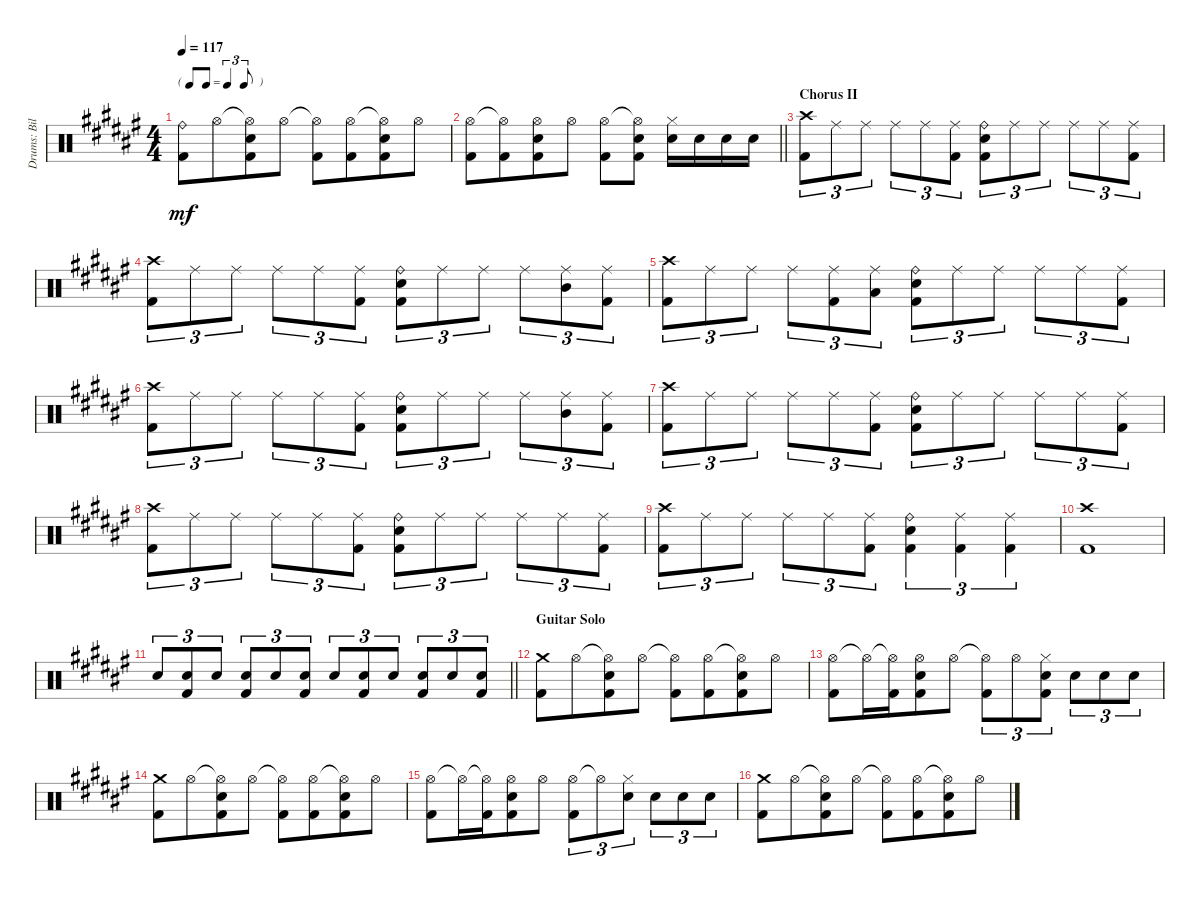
\track ("Drums: Bill" "Drums: Bil") {instrument percussion}
\staff {score}
\articulation defaults
\ts (4 4)
\tf triplet8th
\tempo 117
\clef neutral
\ks f#
("Ride (bell)" "Kick (hit) 2").8{dy mf} "Hi-Hat (open)".8{beam merge} ("Hi-Hat (open)"{t} "Electric Snare (hit)" "Kick (hit) 2").8 "Hi-Hat (open)".8 ("Hi-Hat (open)"{t} "Kick (hit) 2").8 ("Hi-Hat (open)" "Kick (hit) 2").8{beam merge} ("Hi-Hat (open)"{t} "Electric Snare (hit)" "Kick (hit) 2").8 "Hi-Hat (open)".8 |
\barLineRight lightlight
("Hi-Hat (open)" "Kick (hit) 2").8 ("Hi-Hat (open)"{t} "Kick (hit) 2").8{beam merge} ("Hi-Hat (open)" "Electric Snare (hit)" "Kick (hit) 2").8 "Hi-Hat (open)".8 ("Hi-Hat (open)" "Kick (hit) 2").8 ("Hi-Hat (open)"{t} "Electric Snare (hit)" "Kick (hit) 2").8 ("Hi-Hat (closed)" "Electric Snare (hit)").16 "Electric Snare (hit)".16 "Electric Snare (hit)".16 "Electric Snare (hit)".16 |
\section ("" "Chorus II")
("Crash high (hit)" "Kick (hit) 2").8{tu (3 2)} "Ride (middle)".8{tu (3 2)} "Ride (middle)".8{tu (3 2)} "Ride (middle)".8{tu (3 2)} "Ride (middle)".8{tu (3 2)} ("Ride (middle)" "Kick (hit) 2").8{tu (3 2)} ("Ride (bell)" "Electric Snare (hit)" "Kick (hit) 2").8{tu (3 2)} "Ride (middle)".8{tu (3 2)} "Ride (middle)".8{tu (3 2)} "Ride (middle)".8{tu (3 2)} "Ride (middle)".8{tu (3 2)} ("Ride (middle)" "Kick (hit) 2").8{tu (3 2)} |
("Crash high (hit)" "Kick (hit) 2").8{tu (3 2)} "Ride (middle)".8{tu (3 2)} "Ride (middle)".8{tu (3 2)} "Ride (middle)".8{tu (3 2)} "Ride (middle)".8{tu (3 2)} ("Ride (middle)" "Kick (hit) 2").8{tu (3 2)} ("Ride (bell)" "Electric Snare (hit)" "Kick (hit) 2").8{tu (3 2)} "Ride (middle)".8{tu (3 2)} "Ride (middle)".8{tu (3 2)} "Ride (middle)".8{tu (3 2)} ("Ride (middle)" "Mid Tom (hit)").8{tu (3 2)} ("Ride (middle)" "Kick (hit) 2").8{tu (3 2)} |
("Crash high (hit)" "Kick (hit) 2").8{tu (3 2)} "Ride (middle)".8{tu (3 2)} "Ride (middle)".8{tu (3 2)} "Ride (middle)".8{tu (3 2)} ("Ride (middle)" "Kick (hit) 2").8{tu (3 2)} ("Ride (middle)" "Low Tom (hit)").8{tu (3 2)} ("Ride (bell)" "Electric Snare (hit)" "Kick (hit) 2").8{tu (3 2)} "Ride (middle)".8{tu (3 2)} "Ride (middle)".8{tu (3 2)} "Ride (middle)".8{tu (3 2)} "Ride (middle)".8{tu (3 2)} ("Ride (middle)" "Kick (hit) 2").8{tu (3 2)} |
("Crash high (hit)" "Kick (hit) 2").8{tu (3 2)} "Ride (middle)".8{tu (3 2)} "Ride (middle)".8{tu (3 2)} "Ride (middle)".8{tu (3 2)} "Ride (middle)".8{tu (3 2)} ("Ride (middle)" "Kick (hit) 2").8{tu (3 2)} ("Ride (bell)" "Electric Snare (hit)" "Kick (hit) 2").8{tu (3 2)} "Ride (middle)".8{tu (3 2)} "Ride (middle)".8{tu (3 2)} "Ride (middle)".8{tu (3 2)} ("Ride (middle)" "Mid Tom (hit)").8{tu (3 2)} ("Ride (middle)" "Kick (hit) 2").8{tu (3 2)} |
("Crash high (hit)" "Kick (hit) 2").8{tu (3 2)} "Ride (middle)".8{tu (3 2)} "Ride (middle)".8{tu (3 2)} "Ride (middle)".8{tu (3 2)} "Ride (middle)".8{tu (3 2)} ("Ride (middle)" "Kick (hit) 2").8{tu (3 2)} ("Ride (bell)" "Electric Snare (hit)" "Kick (hit) 2").8{tu (3 2)} "Ride (middle)".8{tu (3 2)} "Ride (middle)".8{tu (3 2)} "Ride (middle)".8{tu (3 2)} "Ride (middle)".8{tu (3 2)} ("Ride (middle)" "Kick (hit) 2").8{tu (3 2)} |
("Crash high (hit)" "Kick (hit) 2").8{tu (3 2)} "Ride (middle)".8{tu (3 2)} "Ride (middle)".8{tu (3 2)} "Ride (middle)".8{tu (3 2)} "Ride (middle)".8{tu (3 2)} ("Ride (middle)" "Kick (hit) 2").8{tu (3 2)} ("Ride (bell)" "Electric Snare (hit)" "Kick (hit) 2").8{tu (3 2)} "Ride (middle)".8{tu (3 2)} "Ride (middle)".8{tu (3 2)} "Ride (middle)".8{tu (3 2)} "Ride (middle)".8{tu (3 2)} ("Ride (middle)" "Kick (hit) 2").8{tu (3 2)} |
("Crash high (hit)" "Kick (hit) 2").8{tu (3 2)} "Ride (middle)".8{tu (3 2)} "Ride (middle)".8{tu (3 2)} "Ride (middle)".8{tu (3 2)} "Ride (middle)".8{tu (3 2)} ("Ride (middle)" "Kick (hit) 2").8{tu (3 2)} ("Ride (bell)" "Electric Snare (hit)" "Kick (hit) 2").4{tu (3 2)} ("Ride (middle)" "Kick (hit) 2").4{tu (3 2)} ("Ride (middle)" "Kick (hit) 2").4{tu (3 2)} |
("Crash high (hit)" "Kick (hit) 2").1 |
\barLineRight lightlight "Snare (hit) 2".8{tu (3 2)}
("Snare (hit) 2" "Kick (hit) 2").8{tu (3 2)} "Snare (hit) 2".8{tu (3 2)} ("Snare (hit) 2" "Kick (hit) 2").8{tu (3 2)} "Snare (hit) 2".8{tu (3 2)} ("Snare (hit) 2" "Kick (hit) 2").8{tu (3 2)} "Snare (hit) 2".8{tu (3 2)} ("Snare (hit) 2" "Kick (hit) 2").8{tu (3 2)} "Snare (hit) 2".8{tu (3 2)} ("Snare (hit) 2" "Kick (hit) 2").8{tu (3 2)} "Snare (hit) 2".8{tu (3 2)} ("Snare (hit) 2" "Kick (hit) 2").8{tu (3 2)} |
\section ("" "Guitar Solo")
("Crash medium (hit)" "Kick (hit) 2").8 "Hi-Hat (open)".8{beam merge} ("Hi-Hat (open)"{t} "Electric Snare (hit)" "Kick (hit) 2").8 "Hi-Hat (open)".8 ("Hi-Hat (open)"{t} "Kick (hit) 2").8 ("Hi-Hat (open)" "Kick (hit) 2").8{beam merge} ("Hi-Hat (open)"{t} "Electric Snare (hit)" "Kick (hit) 2").8 "Hi-Hat (open)".8 |
("Hi-Hat (open)" "Kick (hit) 2").8 "Hi-Hat (open)"{t}.16 ("Hi-Hat (open)"{t} "Kick (hit) 2").16{beam merge} ("Hi-Hat (open)" "Snare (hit) 2" "Kick (hit) 2").8 "Hi-Hat (open)".8 ("Hi-Hat (open)"{t} "Kick (hit) 2").8{tu (3 2)} "Hi-Hat (open)".8{tu (3 2)} ("Hi-Hat (closed)" "Electric Snare (hit)" "Kick (hit) 2").8{tu (3 2)} "Electric Snare (hit)".8{tu (3 2)} "Electric Snare (hit)".8{tu (3 2)} "Electric Snare (hit)".8{tu (3 2)} |
("Crash medium (hit)" "Kick (hit) 2").8 "Hi-Hat (open)".8{beam merge} ("Hi-Hat (open)"{t} "Electric Snare (hit)" "Kick (hit) 2").8 "Hi-Hat (open)".8 ("Hi-Hat (open)"{t} "Kick (hit) 2").8 ("Hi-Hat (open)" "Kick (hit) 2").8{beam merge} ("Hi-Hat (open)"{t} "Electric Snare (hit)" "Kick (hit) 2").8 "Hi-Hat (open)".8 |
("Hi-Hat (open)" "Kick (hit) 2").8 "Hi-Hat (open)"{t}.16 ("Hi-Hat (open)"{t} "Kick (hit) 2").16{beam merge} ("Hi-Hat (open)" "Snare (hit) 2" "Kick (hit) 2").8 "Hi-Hat (open)".8 ("Hi-Hat (open)" "Kick (hit) 2").8{tu (3 2)} "Hi-Hat (open)"{t}.8{tu (3 2)} ("Hi-Hat (closed)" "Electric Snare (hit)").8{tu (3 2)} "Electric Snare (hit)".8{tu (3 2)} "Electric Snare (hit)".8{tu (3 2)} "Electric Snare (hit)".8{tu (3 2)} |
("Crash medium (hit)" "Kick (hit) 2").8 "Hi-Hat (open)".8{beam merge} ("Hi-Hat (open)"{t} "Electric Snare (hit)" "Kick (hit) 2").8 "Hi-Hat (open)".8 ("Hi-Hat (open)"{t} "Kick (hit) 2").8 ("Hi-Hat (open)" "Kick (hit) 2").8{beam merge} ("Hi-Hat (open)"{t} "Electric Snare (hit)" "Kick (hit) 2").8 "Hi-Hat (open)".8
